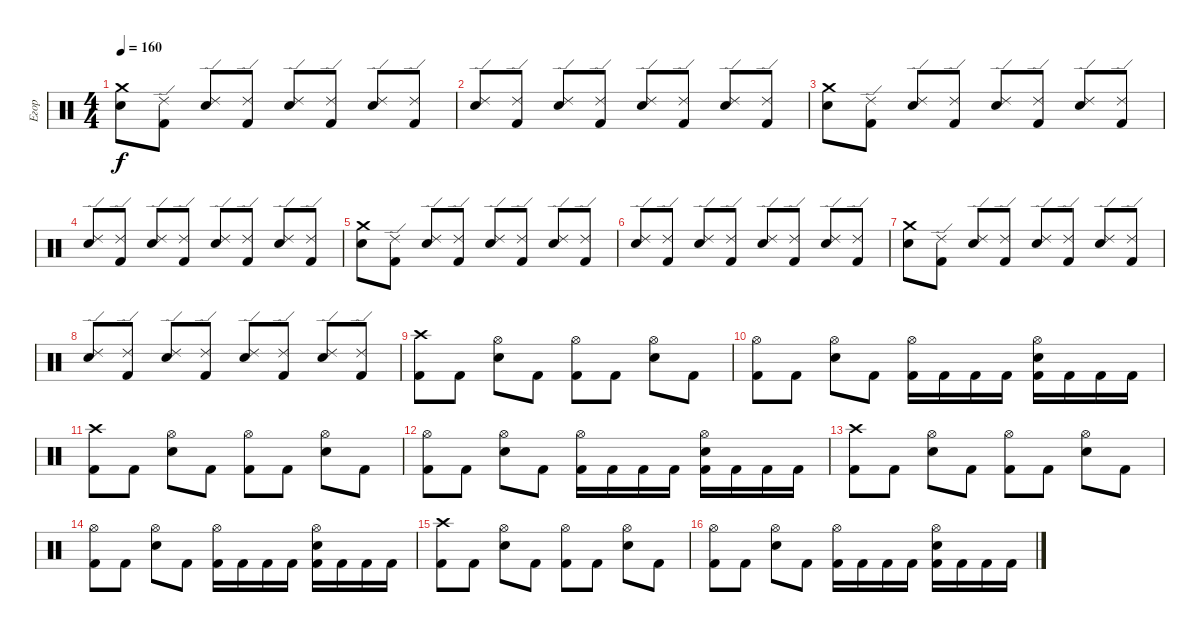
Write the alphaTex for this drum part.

\track ("Егор" "Егор") {instrument percussion}
\staff {score}
\articulation defaults
\ts (4 4)
\tempo 160
\clef neutral
\ks c
("Crash medium (hit)" "Snare (hit) 2").8{dy f} ("Ride (edge) 2" "Kick (hit) 2").8 ("Ride (edge) 2" "Snare (hit) 2").8 ("Ride (edge) 2" "Kick (hit) 2").8 ("Ride (edge) 2" "Snare (hit) 2").8 ("Ride (edge) 2" "Kick (hit) 2").8 ("Ride (edge) 2" "Snare (hit) 2").8 ("Ride (edge) 2" "Kick (hit) 2").8 |
("Ride (edge) 2" "Snare (hit) 2").8 ("Ride (edge) 2" "Kick (hit) 2").8 ("Ride (edge) 2" "Snare (hit) 2").8 ("Ride (edge) 2" "Kick (hit) 2").8 ("Ride (edge) 2" "Snare (hit) 2").8 ("Ride (edge) 2" "Kick (hit) 2").8 ("Ride (edge) 2" "Snare (hit) 2").8 ("Ride (edge) 2" "Kick (hit) 2").8 |
("Crash medium (hit)" "Snare (hit) 2").8 ("Ride (edge) 2" "Kick (hit) 2").8 ("Ride (edge) 2" "Snare (hit) 2").8 ("Ride (edge) 2" "Kick (hit) 2").8 ("Ride (edge) 2" "Snare (hit) 2").8 ("Ride (edge) 2" "Kick (hit) 2").8 ("Ride (edge) 2" "Snare (hit) 2").8 ("Ride (edge) 2" "Kick (hit) 2").8 |
("Ride (edge) 2" "Snare (hit) 2").8 ("Ride (edge) 2" "Kick (hit) 2").8 ("Ride (edge) 2" "Snare (hit) 2").8 ("Ride (edge) 2" "Kick (hit) 2").8 ("Ride (edge) 2" "Snare (hit) 2").8 ("Ride (edge) 2" "Kick (hit) 2").8 ("Ride (edge) 2" "Snare (hit) 2").8 ("Ride (edge) 2" "Kick (hit) 2").8 |
("Crash medium (hit)" "Snare (hit) 2").8 ("Ride (edge) 2" "Kick (hit) 2").8 ("Ride (edge) 2" "Snare (hit) 2").8 ("Ride (edge) 2" "Kick (hit) 2").8 ("Ride (edge) 2" "Snare (hit) 2").8 ("Ride (edge) 2" "Kick (hit) 2").8 ("Ride (edge) 2" "Snare (hit) 2").8 ("Ride (edge) 2" "Kick (hit) 2").8 |
("Ride (edge) 2" "Snare (hit) 2").8 ("Ride (edge) 2" "Kick (hit) 2").8 ("Ride (edge) 2" "Snare (hit) 2").8 ("Ride (edge) 2" "Kick (hit) 2").8 ("Ride (edge) 2" "Snare (hit) 2").8 ("Ride (edge) 2" "Kick (hit) 2").8 ("Ride (edge) 2" "Snare (hit) 2").8 ("Ride (edge) 2" "Kick (hit) 2").8 |
("Crash medium (hit)" "Snare (hit) 2").8 ("Ride (edge) 2" "Kick (hit) 2").8 ("Ride (edge) 2" "Snare (hit) 2").8 ("Ride (edge) 2" "Kick (hit) 2").8 ("Ride (edge) 2" "Snare (hit) 2").8 ("Ride (edge) 2" "Kick (hit) 2").8 ("Ride (edge) 2" "Snare (hit) 2").8 ("Ride (edge) 2" "Kick (hit) 2").8 |
("Ride (edge) 2" "Snare (hit) 2").8 ("Ride (edge) 2" "Kick (hit) 2").8 ("Ride (edge) 2" "Snare (hit) 2").8 ("Ride (edge) 2" "Kick (hit) 2").8 ("Ride (edge) 2" "Snare (hit) 2").8 ("Ride (edge) 2" "Kick (hit) 2").8 ("Ride (edge) 2" "Snare (hit) 2").8 ("Ride (edge) 2" "Kick (hit) 2").8 |
("Crash high (hit)" "Kick (hit) 2").8 "Kick (hit) 2".8 ("Hi-Hat (open)" "Snare (hit) 2").8 "Kick (hit) 2".8 ("Hi-Hat (open)" "Kick (hit) 2").8 "Kick (hit) 2".8 ("Hi-Hat (open)" "Snare (hit) 2").8 "Kick (hit) 2".8 |
("Hi-Hat (open)" "Kick (hit) 2").8 "Kick (hit) 2".8 ("Hi-Hat (open)" "Snare (hit) 2").8 "Kick (hit) 2".8 ("Hi-Hat (open)" "Kick (hit) 2").16 "Kick (hit) 2".16 "Kick (hit) 2".16 "Kick (hit) 2".16 ("Hi-Hat (open)" "Snare (hit) 2" "Kick (hit) 2").16 "Kick (hit) 2".16 "Kick (hit) 2".16 "Kick (hit) 2".16 |
("Crash high (hit)" "Kick (hit) 2").8 "Kick (hit) 2".8 ("Hi-Hat (open)" "Snare (hit) 2").8 "Kick (hit) 2".8 ("Hi-Hat (open)" "Kick (hit) 2").8 "Kick (hit) 2".8 ("Hi-Hat (open)" "Snare (hit) 2").8 "Kick (hit) 2".8 |
("Hi-Hat (open)" "Kick (hit) 2").8 "Kick (hit) 2".8 ("Hi-Hat (open)" "Snare (hit) 2").8 "Kick (hit) 2".8 ("Hi-Hat (open)" "Kick (hit) 2").16 "Kick (hit) 2".16 "Kick (hit) 2".16 "Kick (hit) 2".16 ("Hi-Hat (open)" "Snare (hit) 2" "Kick (hit) 2").16 "Kick (hit) 2".16 "Kick (hit) 2".16 "Kick (hit) 2".16 |
("Crash high (hit)" "Kick (hit) 2").8 "Kick (hit) 2".8 ("Hi-Hat (open)" "Snare (hit) 2").8 "Kick (hit) 2".8 ("Hi-Hat (open)" "Kick (hit) 2").8 "Kick (hit) 2".8 ("Hi-Hat (open)" "Snare (hit) 2").8 "Kick (hit) 2".8 |
("Hi-Hat (open)" "Kick (hit) 2").8 "Kick (hit) 2".8 ("Hi-Hat (open)" "Snare (hit) 2").8 "Kick (hit) 2".8 ("Hi-Hat (open)" "Kick (hit) 2").16 "Kick (hit) 2".16 "Kick (hit) 2".16 "Kick (hit) 2".16 ("Hi-Hat (open)" "Snare (hit) 2" "Kick (hit) 2").16 "Kick (hit) 2".16 "Kick (hit) 2".16 "Kick (hit) 2".16 |
("Crash high (hit)" "Kick (hit) 2").8 "Kick (hit) 2".8 ("Hi-Hat (open)" "Snare (hit) 2").8 "Kick (hit) 2".8 ("Hi-Hat (open)" "Kick (hit) 2").8 "Kick (hit) 2".8 ("Hi-Hat (open)" "Snare (hit) 2").8 "Kick (hit) 2".8 |
("Hi-Hat (open)" "Kick (hit) 2").8 "Kick (hit) 2".8 ("Hi-Hat (open)" "Snare (hit) 2").8 "Kick (hit) 2".8 ("Hi-Hat (open)" "Kick (hit) 2").16 "Kick (hit) 2".16 "Kick (hit) 2".16 "Kick (hit) 2".16 ("Hi-Hat (open)" "Snare (hit) 2" "Kick (hit) 2").16 "Kick (hit) 2".16 "Kick (hit) 2".16 "Kick (hit) 2".16
